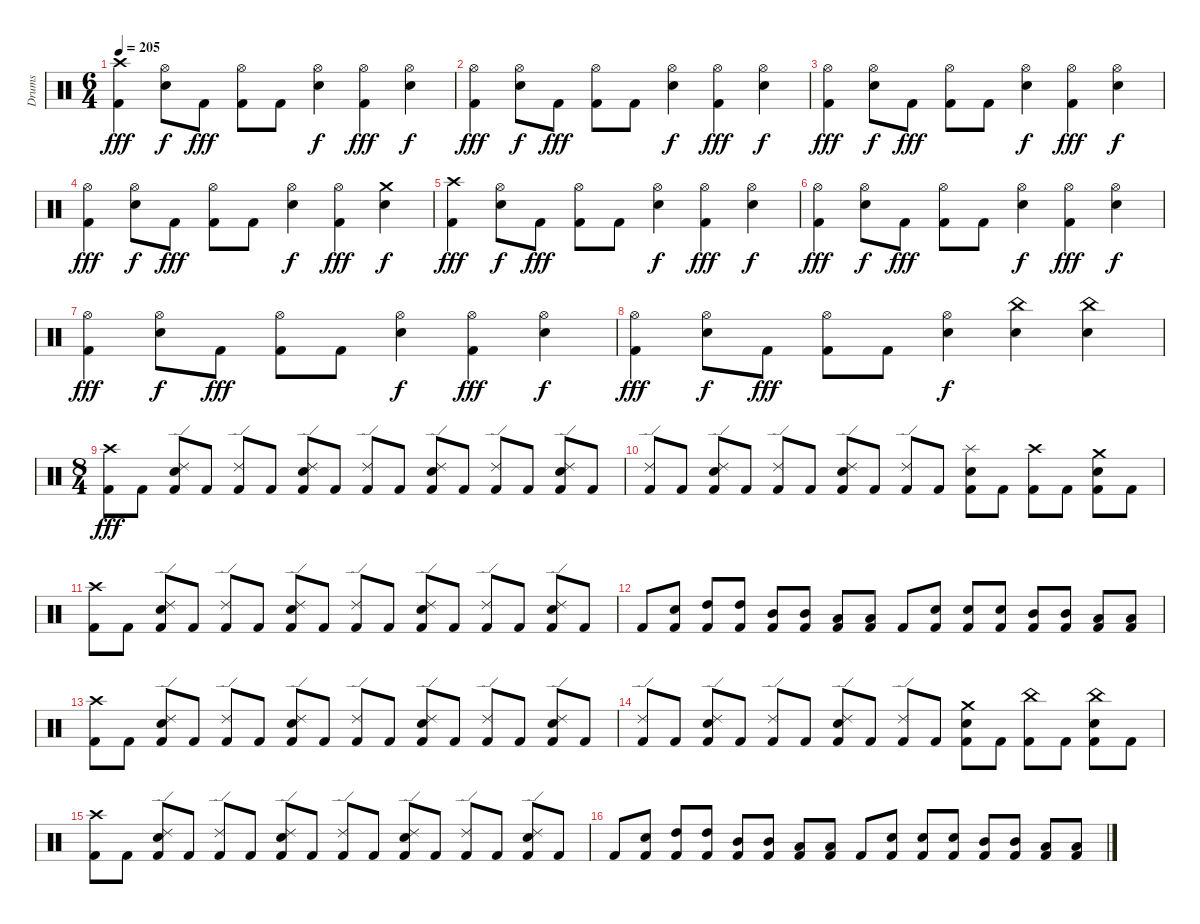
\track ("Drums" "Drums") {instrument percussion}
\staff {score}
\articulation defaults
\ts (6 4)
\tempo 205
\clef neutral
\ks c
("Crash high (hit)" "Kick (hit) 2").4{dy fff} ("Hi-Hat (open)" "Snare (hit) 2").8{dy f} "Kick (hit) 2".8{dy fff} ("Hi-Hat (open)" "Kick (hit) 2").8 "Kick (hit) 2".8 ("Hi-Hat (open)" "Snare (hit) 2").4{dy f} ("Hi-Hat (open)" "Kick (hit) 2").4{dy fff} ("Hi-Hat (open)" "Snare (hit) 2").4{dy f} |
("Hi-Hat (open)" "Kick (hit) 2").4{dy fff} ("Hi-Hat (open)" "Snare (hit) 2").8{dy f} "Kick (hit) 2".8{dy fff} ("Hi-Hat (open)" "Kick (hit) 2").8 "Kick (hit) 2".8 ("Hi-Hat (open)" "Snare (hit) 2").4{dy f} ("Hi-Hat (open)" "Kick (hit) 2").4{dy fff} ("Hi-Hat (open)" "Snare (hit) 2").4{dy f} |
("Hi-Hat (open)" "Kick (hit) 2").4{dy fff} ("Hi-Hat (open)" "Snare (hit) 2").8{dy f} "Kick (hit) 2".8{dy fff} ("Hi-Hat (open)" "Kick (hit) 2").8 "Kick (hit) 2".8 ("Hi-Hat (open)" "Snare (hit) 2").4{dy f} ("Hi-Hat (open)" "Kick (hit) 2").4{dy fff} ("Hi-Hat (open)" "Snare (hit) 2").4{dy f} |
("Hi-Hat (open)" "Kick (hit) 2").4{dy fff} ("Hi-Hat (open)" "Snare (hit) 2").8{dy f} "Kick (hit) 2".8{dy fff} ("Hi-Hat (open)" "Kick (hit) 2").8 "Kick (hit) 2".8 ("Hi-Hat (open)" "Snare (hit) 2").4{dy f} ("Hi-Hat (open)" "Kick (hit) 2").4{dy fff} ("Crash medium (hit)" "Snare (hit) 2").4{dy f} |
("Crash high (hit)" "Kick (hit) 2").4{dy fff} ("Hi-Hat (open)" "Snare (hit) 2").8{dy f} "Kick (hit) 2".8{dy fff} ("Hi-Hat (open)" "Kick (hit) 2").8 "Kick (hit) 2".8 ("Hi-Hat (open)" "Snare (hit) 2").4{dy f} ("Hi-Hat (open)" "Kick (hit) 2").4{dy fff} ("Hi-Hat (open)" "Snare (hit) 2").4{dy f} |
("Hi-Hat (open)" "Kick (hit) 2").4{dy fff} ("Hi-Hat (open)" "Snare (hit) 2").8{dy f} "Kick (hit) 2".8{dy fff} ("Hi-Hat (open)" "Kick (hit) 2").8 "Kick (hit) 2".8 ("Hi-Hat (open)" "Snare (hit) 2").4{dy f} ("Hi-Hat (open)" "Kick (hit) 2").4{dy fff} ("Hi-Hat (open)" "Snare (hit) 2").4{dy f} |
("Hi-Hat (open)" "Kick (hit) 2").4{dy fff} ("Hi-Hat (open)" "Snare (hit) 2").8{dy f} "Kick (hit) 2".8{dy fff} ("Hi-Hat (open)" "Kick (hit) 2").8 "Kick (hit) 2".8 ("Hi-Hat (open)" "Snare (hit) 2").4{dy f} ("Hi-Hat (open)" "Kick (hit) 2").4{dy fff} ("Hi-Hat (open)" "Snare (hit) 2").4{dy f} |
("Hi-Hat (open)" "Kick (hit) 2").4{dy fff} ("Hi-Hat (open)" "Snare (hit) 2").8{dy f} "Kick (hit) 2".8{dy fff} ("Hi-Hat (open)" "Kick (hit) 2").8 "Kick (hit) 2".8 ("Hi-Hat (open)" "Snare (hit) 2").4{dy f} ("China (hit)" "Snare (hit) 2").4 ("China (hit)" "Snare (hit) 2").4 |
\ts (8 4)
("Crash high (hit)" "Kick (hit) 2").8{dy fff} "Kick (hit) 2".8 ("Ride (edge) 2" "Snare (hit) 2" "Kick (hit) 2").8 "Kick (hit) 2".8 ("Ride (edge) 2" "Kick (hit) 2").8 "Kick (hit) 2".8 ("Ride (edge) 2" "Snare (hit) 2" "Kick (hit) 2").8 "Kick (hit) 2".8 ("Ride (edge) 2" "Kick (hit) 2").8 "Kick (hit) 2".8 ("Ride (edge) 2" "Snare (hit) 2" "Kick (hit) 2").8 "Kick (hit) 2".8 ("Ride (edge) 2" "Kick (hit) 2").8 "Kick (hit) 2".8 ("Ride (edge) 2" "Snare (hit) 2" "Kick (hit) 2").8 "Kick (hit) 2".8 |
("Ride (edge) 2" "Kick (hit) 2").8 "Kick (hit) 2".8 ("Ride (edge) 2" "Snare (hit) 2" "Kick (hit) 2").8 "Kick (hit) 2".8 ("Ride (edge) 2" "Kick (hit) 2").8 "Kick (hit) 2".8 ("Ride (edge) 2" "Snare (hit) 2" "Kick (hit) 2").8 "Kick (hit) 2".8 ("Ride (edge) 2" "Kick (hit) 2").8 "Kick (hit) 2".8 ("Splash (hit)" "Snare (hit) 2" "Kick (hit) 2").8 "Kick (hit) 2".8 ("Crash high (hit)" "Kick (hit) 2").8 "Kick (hit) 2".8 ("Crash medium (hit)" "Snare (hit) 2" "Kick (hit) 2").8 "Kick (hit) 2".8 |
("Crash high (hit)" "Kick (hit) 2").8 "Kick (hit) 2".8 ("Ride (edge) 2" "Snare (hit) 2" "Kick (hit) 2").8 "Kick (hit) 2".8 ("Ride (edge) 2" "Kick (hit) 2").8 "Kick (hit) 2".8 ("Ride (edge) 2" "Snare (hit) 2" "Kick (hit) 2").8 "Kick (hit) 2".8 ("Ride (edge) 2" "Kick (hit) 2").8 "Kick (hit) 2".8 ("Ride (edge) 2" "Snare (hit) 2" "Kick (hit) 2").8 "Kick (hit) 2".8 ("Ride (edge) 2" "Kick (hit) 2").8 "Kick (hit) 2".8 ("Ride (edge) 2" "Snare (hit) 2" "Kick (hit) 2").8 "Kick (hit) 2".8 |
"Kick (hit) 2".8 ("Snare (hit) 2" "Kick (hit) 2").8 ("High Tom (hit)" "Kick (hit) 2").8 ("High Tom (hit)" "Kick (hit) 2").8 ("Mid Tom (hit)" "Kick (hit) 2").8 ("Mid Tom (hit)" "Kick (hit) 2").8 ("Low Tom (hit)" "Kick (hit) 2").8 ("Low Tom (hit)" "Kick (hit) 2").8 "Kick (hit) 2".8 ("Snare (hit) 2" "Kick (hit) 2").8 ("Snare (hit) 2" "Kick (hit) 2").8 ("Snare (hit) 2" "Kick (hit) 2").8 ("Mid Tom (hit)" "Kick (hit) 2").8 ("Mid Tom (hit)" "Kick (hit) 2").8 ("Low Tom (hit)" "Kick (hit) 2").8 ("Low Tom (hit)" "Kick (hit) 2").8 |
("Crash high (hit)" "Kick (hit) 2").8 "Kick (hit) 2".8 ("Ride (edge) 2" "Snare (hit) 2" "Kick (hit) 2").8 "Kick (hit) 2".8 ("Ride (edge) 2" "Kick (hit) 2").8 "Kick (hit) 2".8 ("Ride (edge) 2" "Snare (hit) 2" "Kick (hit) 2").8 "Kick (hit) 2".8 ("Ride (edge) 2" "Kick (hit) 2").8 "Kick (hit) 2".8 ("Ride (edge) 2" "Snare (hit) 2" "Kick (hit) 2").8 "Kick (hit) 2".8 ("Ride (edge) 2" "Kick (hit) 2").8 "Kick (hit) 2".8 ("Ride (edge) 2" "Snare (hit) 2" "Kick (hit) 2").8 "Kick (hit) 2".8 |
("Ride (edge) 2" "Kick (hit) 2").8 "Kick (hit) 2".8 ("Ride (edge) 2" "Snare (hit) 2" "Kick (hit) 2").8 "Kick (hit) 2".8 ("Ride (edge) 2" "Kick (hit) 2").8 "Kick (hit) 2".8 ("Ride (edge) 2" "Snare (hit) 2" "Kick (hit) 2").8 "Kick (hit) 2".8 ("Ride (edge) 2" "Kick (hit) 2").8 "Kick (hit) 2".8 ("Crash medium (hit)" "Snare (hit) 2" "Kick (hit) 2").8 "Kick (hit) 2".8 ("China (hit)" "Kick (hit) 2").8 "Kick (hit) 2".8 ("China (hit)" "Snare (hit) 2" "Kick (hit) 2").8 "Kick (hit) 2".8 |
("Crash high (hit)" "Kick (hit) 2").8 "Kick (hit) 2".8 ("Ride (edge) 2" "Snare (hit) 2" "Kick (hit) 2").8 "Kick (hit) 2".8 ("Ride (edge) 2" "Kick (hit) 2").8 "Kick (hit) 2".8 ("Ride (edge) 2" "Snare (hit) 2" "Kick (hit) 2").8 "Kick (hit) 2".8 ("Ride (edge) 2" "Kick (hit) 2").8 "Kick (hit) 2".8 ("Ride (edge) 2" "Snare (hit) 2" "Kick (hit) 2").8 "Kick (hit) 2".8 ("Ride (edge) 2" "Kick (hit) 2").8 "Kick (hit) 2".8 ("Ride (edge) 2" "Snare (hit) 2" "Kick (hit) 2").8 "Kick (hit) 2".8 |
"Kick (hit) 2".8 ("Snare (hit) 2" "Kick (hit) 2").8 ("High Tom (hit)" "Kick (hit) 2").8 ("High Tom (hit)" "Kick (hit) 2").8 ("Mid Tom (hit)" "Kick (hit) 2").8 ("Mid Tom (hit)" "Kick (hit) 2").8 ("Low Tom (hit)" "Kick (hit) 2").8 ("Low Tom (hit)" "Kick (hit) 2").8 "Kick (hit) 2".8 ("Snare (hit) 2" "Kick (hit) 2").8 ("Snare (hit) 2" "Kick (hit) 2").8 ("Snare (hit) 2" "Kick (hit) 2").8 ("Mid Tom (hit)" "Kick (hit) 2").8 ("Mid Tom (hit)" "Kick (hit) 2").8 ("Low Tom (hit)" "Kick (hit) 2").8 ("Low Tom (hit)" "Kick (hit) 2").8
